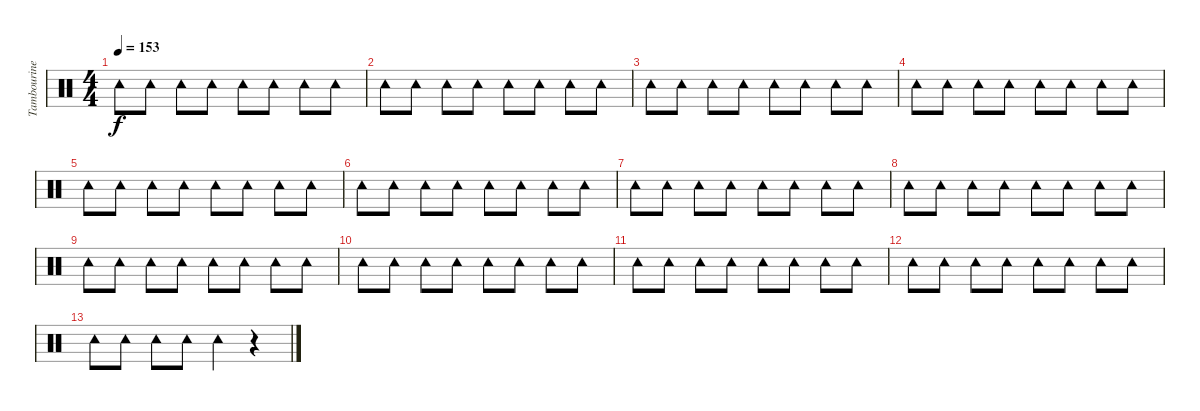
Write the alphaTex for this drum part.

\track ("Tambourine" "Tambourine") {instrument percussion}
\staff {score}
\articulation defaults
\ts (4 4)
\tempo 153
\clef neutral
\ks c "Tambourine (hit)".8{dy f} "Tambourine (hit)".8 "Tambourine (hit)".8 "Tambourine (hit)".8 "Tambourine (hit)".8 "Tambourine (hit)".8 "Tambourine (hit)".8 "Tambourine (hit)".8
|
"Tambourine (hit)".8 "Tambourine (hit)".8 "Tambourine (hit)".8 "Tambourine (hit)".8 "Tambourine (hit)".8 "Tambourine (hit)".8 "Tambourine (hit)".8 "Tambourine (hit)".8 |
"Tambourine (hit)".8 "Tambourine (hit)".8 "Tambourine (hit)".8 "Tambourine (hit)".8 "Tambourine (hit)".8 "Tambourine (hit)".8 "Tambourine (hit)".8 "Tambourine (hit)".8 |
"Tambourine (hit)".8 "Tambourine (hit)".8 "Tambourine (hit)".8 "Tambourine (hit)".8 "Tambourine (hit)".8 "Tambourine (hit)".8 "Tambourine (hit)".8 "Tambourine (hit)".8 |
"Tambourine (hit)".8 "Tambourine (hit)".8 "Tambourine (hit)".8 "Tambourine (hit)".8 "Tambourine (hit)".8 "Tambourine (hit)".8 "Tambourine (hit)".8 "Tambourine (hit)".8 |
"Tambourine (hit)".8 "Tambourine (hit)".8 "Tambourine (hit)".8 "Tambourine (hit)".8 "Tambourine (hit)".8 "Tambourine (hit)".8 "Tambourine (hit)".8 "Tambourine (hit)".8 |
"Tambourine (hit)".8 "Tambourine (hit)".8 "Tambourine (hit)".8 "Tambourine (hit)".8 "Tambourine (hit)".8 "Tambourine (hit)".8 "Tambourine (hit)".8 "Tambourine (hit)".8 |
"Tambourine (hit)".8 "Tambourine (hit)".8 "Tambourine (hit)".8 "Tambourine (hit)".8 "Tambourine (hit)".8 "Tambourine (hit)".8 "Tambourine (hit)".8 "Tambourine (hit)".8 |
"Tambourine (hit)".8 "Tambourine (hit)".8 "Tambourine (hit)".8 "Tambourine (hit)".8 "Tambourine (hit)".8 "Tambourine (hit)".8 "Tambourine (hit)".8 "Tambourine (hit)".8 |
"Tambourine (hit)".8 "Tambourine (hit)".8 "Tambourine (hit)".8 "Tambourine (hit)".8 "Tambourine (hit)".8 "Tambourine (hit)".8 "Tambourine (hit)".8 "Tambourine (hit)".8 |
"Tambourine (hit)".8 "Tambourine (hit)".8 "Tambourine (hit)".8 "Tambourine (hit)".8 "Tambourine (hit)".8 "Tambourine (hit)".8 "Tambourine (hit)".8 "Tambourine (hit)".8 |
"Tambourine (hit)".8 "Tambourine (hit)".8 "Tambourine (hit)".8 "Tambourine (hit)".8 "Tambourine (hit)".8 "Tambourine (hit)".8 "Tambourine (hit)".8 "Tambourine (hit)".8 |
"Tambourine (hit)".8 "Tambourine (hit)".8 "Tambourine (hit)".8 "Tambourine (hit)".8 "Tambourine (hit)".4 r.4
